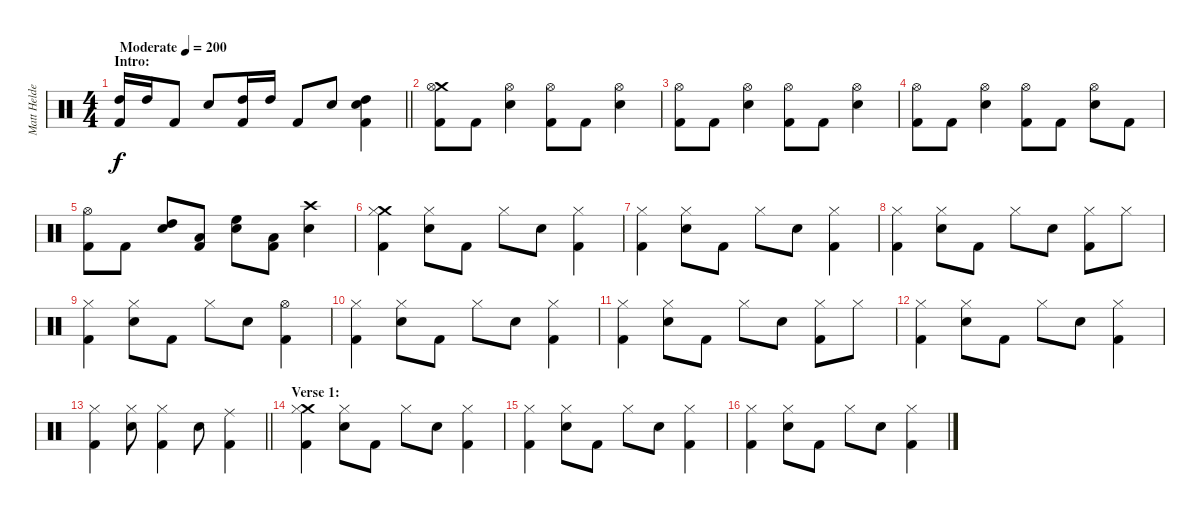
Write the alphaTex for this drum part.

\track ("Matt Helders (Drums/Percussion)" "Matt Helde") {instrument percussion}
\staff {score}
\articulation defaults
\ts (4 4)
\section ("" "Intro:")
\tempo (200 "Moderate")
\clef neutral
\barLineRight lightlight
\ks c
("High Tom (hit)" "Kick (hit) 2").16{dy f} "High Tom (hit)".16 "Kick (hit) 2".8 "Snare (hit) 2".8 ("High Tom (hit)" "Kick (hit) 2").16 "High Tom (hit)".16 "Kick (hit) 2".8 "Snare (hit) 2".8 ("High Tom (hit)" "Snare (hit) 2" "Kick (hit) 2").4 |
\section ("" "")
("Crash medium (hit)" "Hi-Hat (open)" "Kick (hit) 2").8 "Kick (hit) 2".8 ("Hi-Hat (open)" "Snare (hit) 2").4 ("Hi-Hat (open)" "Kick (hit) 2").8 "Kick (hit) 2".8 ("Hi-Hat (open)" "Snare (hit) 2").4 |
("Hi-Hat (open)" "Kick (hit) 2").8 "Kick (hit) 2".8 ("Hi-Hat (open)" "Snare (hit) 2").4 ("Hi-Hat (open)" "Kick (hit) 2").8 "Kick (hit) 2".8 ("Hi-Hat (open)" "Snare (hit) 2").4 |
("Hi-Hat (open)" "Kick (hit) 2").8 "Kick (hit) 2".8 ("Hi-Hat (open)" "Snare (hit) 2").4 ("Hi-Hat (open)" "Kick (hit) 2").8 "Kick (hit) 2".8 ("Hi-Hat (open)" "Snare (hit) 2").8 "Kick (hit) 2".8 |
("Hi-Hat (open)" "Kick (hit) 2").8 "Kick (hit) 2".8 ("Snare (hit) 2" "High Tom (hit)").8 ("Low Tom (hit)" "Kick (hit) 2").8 ("Snare (hit) 2" "High Floor Tom (hit)").8 ("Low Tom (hit)" "Kick (hit) 2").8 ("Crash high (hit)" "Snare (hit) 2").4 |
("Crash medium (hit)" "Hi-Hat (closed)" "Kick (hit) 2").4 ("Hi-Hat (closed)" "Snare (hit) 2").8 "Kick (hit) 2".8 "Hi-Hat (closed)".8 "Snare (hit) 2".8 ("Hi-Hat (closed)" "Kick (hit) 2").4 |
("Hi-Hat (closed)" "Kick (hit) 2").4 ("Hi-Hat (closed)" "Snare (hit) 2").8 "Kick (hit) 2".8 "Hi-Hat (closed)".8 "Snare (hit) 2".8 ("Hi-Hat (closed)" "Kick (hit) 2").4 |
("Hi-Hat (closed)" "Kick (hit) 2").4 ("Hi-Hat (closed)" "Snare (hit) 2").8 "Kick (hit) 2".8 "Hi-Hat (closed)".8 "Snare (hit) 2".8 ("Hi-Hat (closed)" "Kick (hit) 2").8 "Hi-Hat (closed)".8 |
("Hi-Hat (closed)" "Kick (hit) 2").4 ("Hi-Hat (closed)" "Snare (hit) 2").8 "Kick (hit) 2".8 "Hi-Hat (closed)".8 "Snare (hit) 2".8 ("Hi-Hat (open)" "Kick (hit) 2").4 |
("Hi-Hat (closed)" "Kick (hit) 2").4 ("Hi-Hat (closed)" "Snare (hit) 2").8 "Kick (hit) 2".8 "Hi-Hat (closed)".8 "Snare (hit) 2".8 ("Hi-Hat (closed)" "Kick (hit) 2").4 |
("Hi-Hat (closed)" "Kick (hit) 2").4 ("Hi-Hat (closed)" "Snare (hit) 2").8 "Kick (hit) 2".8 "Hi-Hat (closed)".8 "Snare (hit) 2".8 ("Hi-Hat (closed)" "Kick (hit) 2").8 "Hi-Hat (closed)".8 |
("Hi-Hat (closed)" "Kick (hit) 2").4 ("Hi-Hat (closed)" "Snare (hit) 2").8 "Kick (hit) 2".8 "Hi-Hat (closed)".8 "Snare (hit) 2".8 ("Hi-Hat (closed)" "Kick (hit) 2").4 |
\barLineRight lightlight
("Hi-Hat (closed)" "Kick (hit) 2").4 ("Hi-Hat (closed)" "Snare (hit) 2").8 ("Hi-Hat (closed)" "Kick (hit) 2").4 "Snare (hit) 2".8 ("Ride (middle)" "Kick (hit) 2").4 |
\section ("" "Verse 1:")
("Crash medium (hit)" "Hi-Hat (closed)" "Kick (hit) 2").4 ("Hi-Hat (closed)" "Snare (hit) 2").8 "Kick (hit) 2".8 "Hi-Hat (closed)".8 "Snare (hit) 2".8 ("Hi-Hat (closed)" "Kick (hit) 2").4 |
("Hi-Hat (closed)" "Kick (hit) 2").4 ("Hi-Hat (closed)" "Snare (hit) 2").8 "Kick (hit) 2".8 "Hi-Hat (closed)".8 "Snare (hit) 2".8 ("Hi-Hat (closed)" "Kick (hit) 2").4 |
("Hi-Hat (closed)" "Kick (hit) 2").4 ("Hi-Hat (closed)" "Snare (hit) 2").8 "Kick (hit) 2".8 "Hi-Hat (closed)".8 "Snare (hit) 2".8 ("Hi-Hat (closed)" "Kick (hit) 2").4
